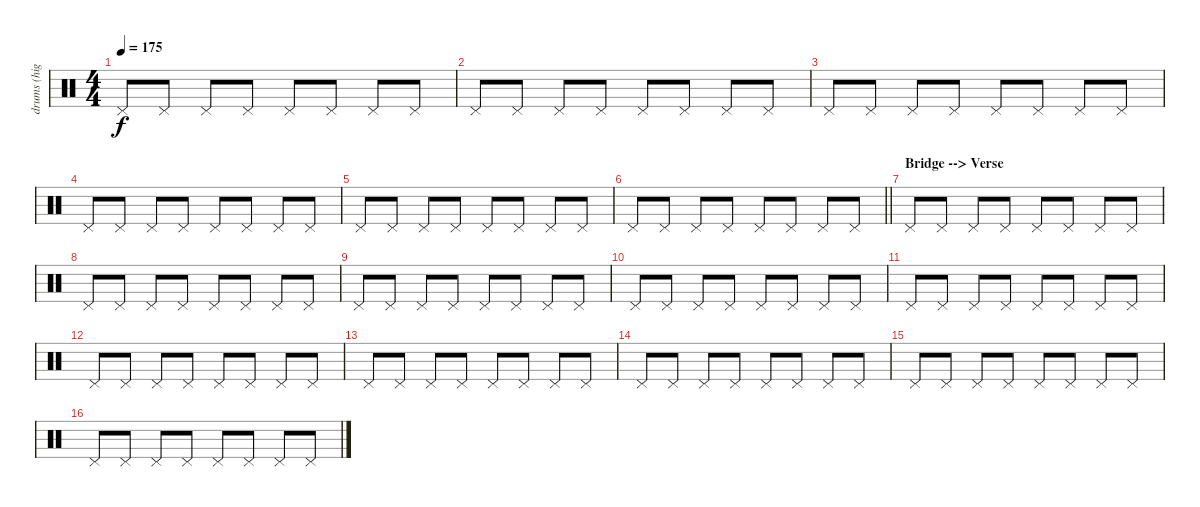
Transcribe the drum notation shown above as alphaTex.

\track ("drums (highhat)" "drums (hig") {instrument percussion}
\staff {score}
\articulation defaults
\ts (4 4)
\tempo 175
\clef neutral
\ks c "Pedal Hi-Hat (hit)".8{dy f} "Pedal Hi-Hat (hit)".8 "Pedal Hi-Hat (hit)".8 "Pedal Hi-Hat (hit)".8 "Pedal Hi-Hat (hit)".8 "Pedal Hi-Hat (hit)".8 "Pedal Hi-Hat (hit)".8 "Pedal Hi-Hat (hit)".8
|
"Pedal Hi-Hat (hit)".8 "Pedal Hi-Hat (hit)".8 "Pedal Hi-Hat (hit)".8 "Pedal Hi-Hat (hit)".8 "Pedal Hi-Hat (hit)".8 "Pedal Hi-Hat (hit)".8 "Pedal Hi-Hat (hit)".8 "Pedal Hi-Hat (hit)".8 |
"Pedal Hi-Hat (hit)".8 "Pedal Hi-Hat (hit)".8 "Pedal Hi-Hat (hit)".8 "Pedal Hi-Hat (hit)".8 "Pedal Hi-Hat (hit)".8 "Pedal Hi-Hat (hit)".8 "Pedal Hi-Hat (hit)".8 "Pedal Hi-Hat (hit)".8 |
"Pedal Hi-Hat (hit)".8 "Pedal Hi-Hat (hit)".8 "Pedal Hi-Hat (hit)".8 "Pedal Hi-Hat (hit)".8 "Pedal Hi-Hat (hit)".8 "Pedal Hi-Hat (hit)".8 "Pedal Hi-Hat (hit)".8 "Pedal Hi-Hat (hit)".8 |
"Pedal Hi-Hat (hit)".8 "Pedal Hi-Hat (hit)".8 "Pedal Hi-Hat (hit)".8 "Pedal Hi-Hat (hit)".8 "Pedal Hi-Hat (hit)".8 "Pedal Hi-Hat (hit)".8 "Pedal Hi-Hat (hit)".8 "Pedal Hi-Hat (hit)".8 |
\barLineRight lightlight "Pedal Hi-Hat (hit)".8 "Pedal Hi-Hat (hit)".8 "Pedal Hi-Hat (hit)".8 "Pedal Hi-Hat (hit)".8 "Pedal Hi-Hat (hit)".8 "Pedal Hi-Hat (hit)".8 "Pedal Hi-Hat (hit)".8 "Pedal Hi-Hat (hit)".8
|
\section ("" "Bridge --> Verse")
"Pedal Hi-Hat (hit)".8 "Pedal Hi-Hat (hit)".8 "Pedal Hi-Hat (hit)".8 "Pedal Hi-Hat (hit)".8 "Pedal Hi-Hat (hit)".8 "Pedal Hi-Hat (hit)".8 "Pedal Hi-Hat (hit)".8 "Pedal Hi-Hat (hit)".8 |
"Pedal Hi-Hat (hit)".8 "Pedal Hi-Hat (hit)".8 "Pedal Hi-Hat (hit)".8 "Pedal Hi-Hat (hit)".8 "Pedal Hi-Hat (hit)".8 "Pedal Hi-Hat (hit)".8 "Pedal Hi-Hat (hit)".8 "Pedal Hi-Hat (hit)".8 |
"Pedal Hi-Hat (hit)".8 "Pedal Hi-Hat (hit)".8 "Pedal Hi-Hat (hit)".8 "Pedal Hi-Hat (hit)".8 "Pedal Hi-Hat (hit)".8 "Pedal Hi-Hat (hit)".8 "Pedal Hi-Hat (hit)".8 "Pedal Hi-Hat (hit)".8 |
"Pedal Hi-Hat (hit)".8 "Pedal Hi-Hat (hit)".8 "Pedal Hi-Hat (hit)".8 "Pedal Hi-Hat (hit)".8 "Pedal Hi-Hat (hit)".8 "Pedal Hi-Hat (hit)".8 "Pedal Hi-Hat (hit)".8 "Pedal Hi-Hat (hit)".8 |
"Pedal Hi-Hat (hit)".8 "Pedal Hi-Hat (hit)".8 "Pedal Hi-Hat (hit)".8 "Pedal Hi-Hat (hit)".8 "Pedal Hi-Hat (hit)".8 "Pedal Hi-Hat (hit)".8 "Pedal Hi-Hat (hit)".8 "Pedal Hi-Hat (hit)".8 |
"Pedal Hi-Hat (hit)".8 "Pedal Hi-Hat (hit)".8 "Pedal Hi-Hat (hit)".8 "Pedal Hi-Hat (hit)".8 "Pedal Hi-Hat (hit)".8 "Pedal Hi-Hat (hit)".8 "Pedal Hi-Hat (hit)".8 "Pedal Hi-Hat (hit)".8 |
"Pedal Hi-Hat (hit)".8 "Pedal Hi-Hat (hit)".8 "Pedal Hi-Hat (hit)".8 "Pedal Hi-Hat (hit)".8 "Pedal Hi-Hat (hit)".8 "Pedal Hi-Hat (hit)".8 "Pedal Hi-Hat (hit)".8 "Pedal Hi-Hat (hit)".8 |
"Pedal Hi-Hat (hit)".8 "Pedal Hi-Hat (hit)".8 "Pedal Hi-Hat (hit)".8 "Pedal Hi-Hat (hit)".8 "Pedal Hi-Hat (hit)".8 "Pedal Hi-Hat (hit)".8 "Pedal Hi-Hat (hit)".8 "Pedal Hi-Hat (hit)".8 |
"Pedal Hi-Hat (hit)".8 "Pedal Hi-Hat (hit)".8 "Pedal Hi-Hat (hit)".8 "Pedal Hi-Hat (hit)".8 "Pedal Hi-Hat (hit)".8 "Pedal Hi-Hat (hit)".8 "Pedal Hi-Hat (hit)".8 "Pedal Hi-Hat (hit)".8 |
"Pedal Hi-Hat (hit)".8 "Pedal Hi-Hat (hit)".8 "Pedal Hi-Hat (hit)".8 "Pedal Hi-Hat (hit)".8 "Pedal Hi-Hat (hit)".8 "Pedal Hi-Hat (hit)".8 "Pedal Hi-Hat (hit)".8 "Pedal Hi-Hat (hit)".8
